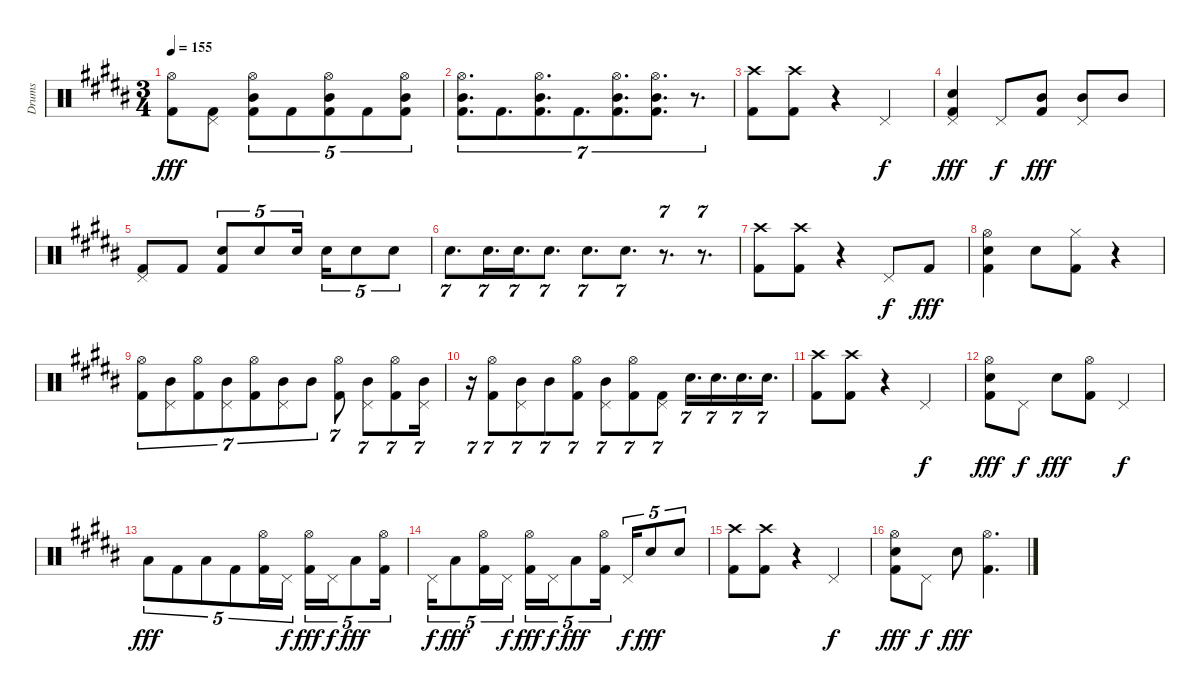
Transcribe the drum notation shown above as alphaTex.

\track ("Drums" "Drums") {instrument percussion}
\staff {score}
\articulation defaults
\ts (3 4)
\tempo 155
\clef neutral
\ks b
("Hi-Hat (open)" "Kick (hit) 2").8{dy fff} ("Pedal Hi-Hat (hit)" "Kick (hit) 2").8 ("Hi-Hat (open)" "Mid Tom (hit)" "Kick (hit) 2").8{tu (5 4)} "Kick (hit) 2".8{tu (5 4)} ("Hi-Hat (open)" "Mid Tom (hit)" "Kick (hit) 2").8{tu (5 4)} "Kick (hit) 2".8{tu (5 4)} ("Hi-Hat (open)" "Mid Tom (hit)" "Kick (hit) 2").8{tu (5 4)} |
("Hi-Hat (open)" "Mid Tom (hit)" "Kick (hit) 2").8{d tu (7 4)} "Kick (hit) 2".8{d tu (7 4)} ("Hi-Hat (open)" "Mid Tom (hit)" "Kick (hit) 2").8{d tu (7 4)} "Kick (hit) 2".8{d tu (7 4)} ("Hi-Hat (open)" "Mid Tom (hit)" "Kick (hit) 2").8{d tu (7 4)} ("Hi-Hat (open)" "Mid Tom (hit)" "Kick (hit) 2").8{d tu (7 4)} r.8{d tu (7 4)} |
("Crash high (hit)" "Kick (hit) 2").8 ("Crash high (hit)" "Kick (hit) 2").8 r.4 "Pedal Hi-Hat (hit)".4{dy f} |
("Pedal Hi-Hat (hit)" "Snare (hit) 2" "Kick (hit) 2").4{dy fff} "Pedal Hi-Hat (hit)".8{dy f} ("Mid Tom (hit)" "Kick (hit) 2").8{dy fff} ("Pedal Hi-Hat (hit)" "Mid Tom (hit)").8 "Mid Tom (hit)".8 |
("Pedal Hi-Hat (hit)" "Kick (hit) 2").8 "Kick (hit) 2".8 ("Snare (hit) 2" "Kick (hit) 2").8{tu (5 4)} "Snare (hit) 2".8{tu (5 4)} "Snare (hit) 2".16{tu (5 4)} "Snare (hit) 2".16{tu (5 4)} "Snare (hit) 2".8{tu (5 4)} "Snare (hit) 2".8{tu (5 4)} |
"Snare (hit) 2".8{d tu (7 4)} "Snare (hit) 2".16{d tu (7 4)} "Snare (hit) 2".16{d tu (7 4)} "Snare (hit) 2".8{d tu (7 4)} "Snare (hit) 2".8{d tu (7 4)} "Snare (hit) 2".8{d tu (7 4)} r.8{d tu (7 4)} r.8{d tu (7 4)} |
("Crash high (hit)" "Kick (hit) 2").8 ("Crash high (hit)" "Kick (hit) 2").8 r.4 "Pedal Hi-Hat (hit)".8{dy f} "Kick (hit) 2".8{dy fff} |
("Hi-Hat (open)" "Snare (hit) 2" "Kick (hit) 2").4 "Snare (hit) 2".8 ("Hi-Hat (closed)" "Kick (hit) 2").8 r.4 |
("Hi-Hat (open)" "Kick (hit) 2").8{tu (7 4)} ("Pedal Hi-Hat (hit)" "Mid Tom (hit)").8{tu (7 4)} ("Hi-Hat (open)" "Kick (hit) 2").8{tu (7 4)} ("Pedal Hi-Hat (hit)" "Mid Tom (hit)").8{tu (7 4)} ("Hi-Hat (open)" "Kick (hit) 2").8{tu (7 4)} ("Pedal Hi-Hat (hit)" "Mid Tom (hit)").8{tu (7 4)} "Mid Tom (hit)".8{tu (7 4)} ("Hi-Hat (open)" "Kick (hit) 2").8{tu (7 4)} ("Pedal Hi-Hat (hit)" "Mid Tom (hit)").8{tu (7 4)} ("Hi-Hat (open)" "Kick (hit) 2").8{tu (7 4)} ("Pedal Hi-Hat (hit)" "Mid Tom (hit)").16{tu (7 4)} |
r.16{tu (7 4)} ("Hi-Hat (open)" "Kick (hit) 2").8{tu (7 4)} ("Pedal Hi-Hat (hit)" "Mid Tom (hit)").8{tu (7 4)} "Mid Tom (hit)".8{tu (7 4)} ("Hi-Hat (open)" "Kick (hit) 2").8{tu (7 4)} ("Pedal Hi-Hat (hit)" "Mid Tom (hit)").8{tu (7 4)} ("Hi-Hat (open)" "Kick (hit) 2").8{tu (7 4)} ("Pedal Hi-Hat (hit)" "Kick (hit) 2").8{tu (7 4)} "Snare (hit) 2".16{d tu (7 4)} "Snare (hit) 2".16{d tu (7 4)} "Snare (hit) 2".16{d tu (7 4)} "Snare (hit) 2".16{d tu (7 4)} |
("Crash high (hit)" "Kick (hit) 2").8 ("Crash high (hit)" "Kick (hit) 2").8 r.4 "Pedal Hi-Hat (hit)".4{dy f} |
("Hi-Hat (open)" "Snare (hit) 2" "Kick (hit) 2").8{dy fff} "Pedal Hi-Hat (hit)".8{dy f} "Snare (hit) 2".8{dy fff} ("Hi-Hat (open)" "Kick (hit) 2").8 "Pedal Hi-Hat (hit)".4{dy f} |
"Low Floor Tom (hit)".8{tu (5 4) dy fff} "Kick (hit) 2".8{tu (5 4)} "Low Floor Tom (hit)".8{tu (5 4)} "Kick (hit) 2".8{tu (5 4)} ("Hi-Hat (open)" "Kick (hit) 2").16{tu (5 4)} "Pedal Hi-Hat (hit)".16{tu (5 4) dy f} ("Hi-Hat (open)" "Kick (hit) 2").16{tu (5 4) dy fff} "Pedal Hi-Hat (hit)".16{tu (5 4) dy f} "Low Floor Tom (hit)".8{tu (5 4) dy fff} ("Hi-Hat (open)" "Kick (hit) 2").16{tu (5 4)} |
"Pedal Hi-Hat (hit)".16{tu (5 4) dy f} "Low Floor Tom (hit)".8{tu (5 4) dy fff} ("Hi-Hat (open)" "Kick (hit) 2").16{tu (5 4)} "Pedal Hi-Hat (hit)".16{tu (5 4) dy f} ("Hi-Hat (open)" "Kick (hit) 2").16{tu (5 4) dy fff} "Pedal Hi-Hat (hit)".16{tu (5 4) dy f} "Low Floor Tom (hit)".8{tu (5 4) dy fff} ("Hi-Hat (open)" "Kick (hit) 2").16{tu (5 4)} "Pedal Hi-Hat (hit)".16{tu (5 4) dy f} "Snare (hit) 2".8{tu (5 4) dy fff} "Snare (hit) 2".8{tu (5 4)} |
("Crash high (hit)" "Kick (hit) 2").8 ("Crash high (hit)" "Kick (hit) 2").8 r.4 "Pedal Hi-Hat (hit)".4{dy f} |
("Hi-Hat (open)" "Snare (hit) 2" "Kick (hit) 2").8{dy fff} "Pedal Hi-Hat (hit)".8{dy f} "Snare (hit) 2".8{dy fff} ("Hi-Hat (open)" "Kick (hit) 2").4{d}
